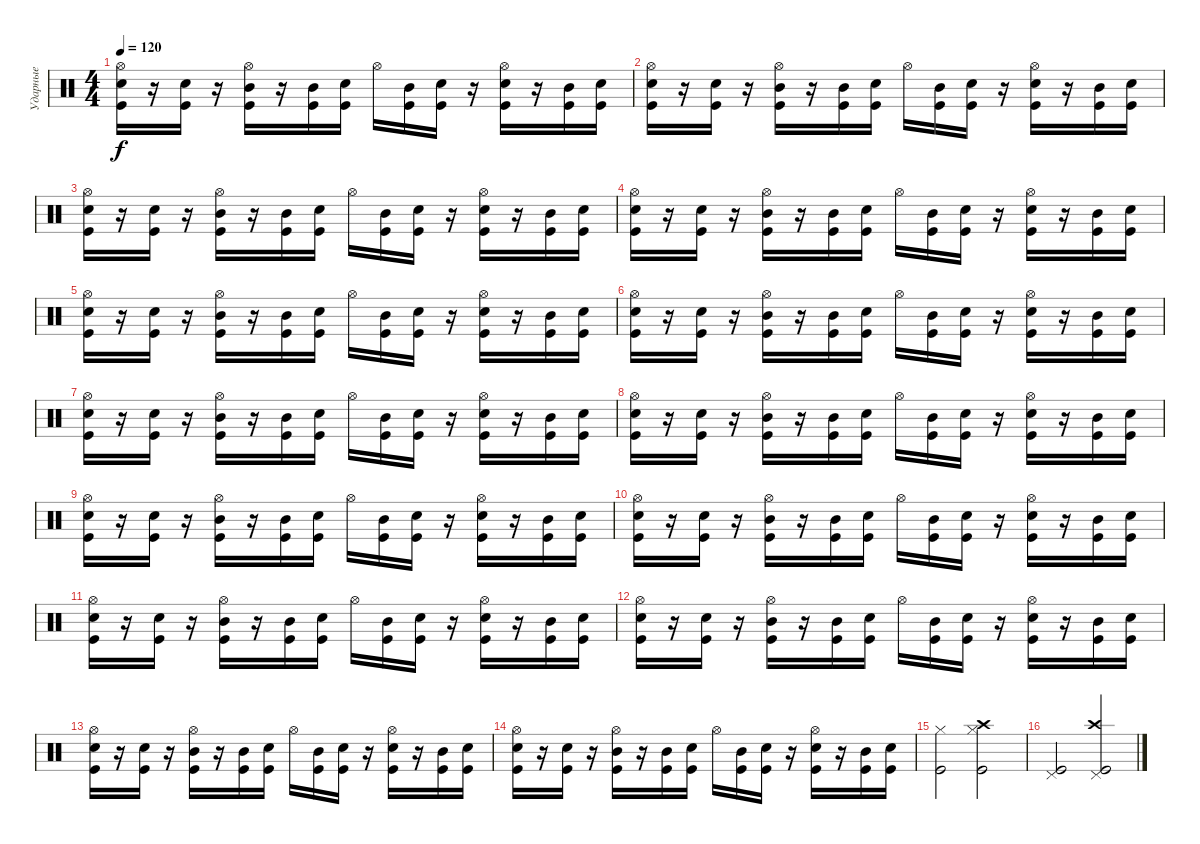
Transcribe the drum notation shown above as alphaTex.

\track ("Ударные" "Ударные") {instrument percussion}
\staff {score}
\articulation defaults
\ts (4 4)
\tempo 120
\clef neutral
\ks c
("Hi-Hat (open)" "Snare (hit) 2" "Kick (hit)").16{dy f} r.16 ("Snare (hit) 2" "Kick (hit)").16 r.16 ("Hi-Hat (open)" "Mid Tom (hit)" "Kick (hit)").16 r.16 ("Mid Tom (hit)" "Kick (hit)").16 ("Snare (hit) 2" "Kick (hit)").16 "Hi-Hat (open)".16 ("Mid Tom (hit)" "Kick (hit)").16 ("Snare (hit) 2" "Kick (hit)").16 r.16 ("Hi-Hat (open)" "Snare (hit) 2" "Kick (hit)").16 r.16 ("Mid Tom (hit)" "Kick (hit)").16 ("Snare (hit) 2" "Kick (hit)").16 |
("Hi-Hat (open)" "Snare (hit) 2" "Kick (hit)").16 r.16 ("Snare (hit) 2" "Kick (hit)").16 r.16 ("Hi-Hat (open)" "Mid Tom (hit)" "Kick (hit)").16 r.16 ("Mid Tom (hit)" "Kick (hit)").16 ("Snare (hit) 2" "Kick (hit)").16 "Hi-Hat (open)".16 ("Mid Tom (hit)" "Kick (hit)").16 ("Snare (hit) 2" "Kick (hit)").16 r.16 ("Hi-Hat (open)" "Snare (hit) 2" "Kick (hit)").16 r.16 ("Mid Tom (hit)" "Kick (hit)").16 ("Snare (hit) 2" "Kick (hit)").16 |
("Hi-Hat (open)" "Snare (hit) 2" "Kick (hit)").16 r.16 ("Snare (hit) 2" "Kick (hit)").16 r.16 ("Hi-Hat (open)" "Mid Tom (hit)" "Kick (hit)").16 r.16 ("Mid Tom (hit)" "Kick (hit)").16 ("Snare (hit) 2" "Kick (hit)").16 "Hi-Hat (open)".16 ("Mid Tom (hit)" "Kick (hit)").16 ("Snare (hit) 2" "Kick (hit)").16 r.16 ("Hi-Hat (open)" "Snare (hit) 2" "Kick (hit)").16 r.16 ("Mid Tom (hit)" "Kick (hit)").16 ("Snare (hit) 2" "Kick (hit)").16 |
("Hi-Hat (open)" "Snare (hit) 2" "Kick (hit)").16 r.16 ("Snare (hit) 2" "Kick (hit)").16 r.16 ("Hi-Hat (open)" "Mid Tom (hit)" "Kick (hit)").16 r.16 ("Mid Tom (hit)" "Kick (hit)").16 ("Snare (hit) 2" "Kick (hit)").16 "Hi-Hat (open)".16 ("Mid Tom (hit)" "Kick (hit)").16 ("Snare (hit) 2" "Kick (hit)").16 r.16 ("Hi-Hat (open)" "Snare (hit) 2" "Kick (hit)").16 r.16 ("Mid Tom (hit)" "Kick (hit)").16 ("Snare (hit) 2" "Kick (hit)").16 |
("Hi-Hat (open)" "Snare (hit) 2" "Kick (hit)").16 r.16 ("Snare (hit) 2" "Kick (hit)").16 r.16 ("Hi-Hat (open)" "Mid Tom (hit)" "Kick (hit)").16 r.16 ("Mid Tom (hit)" "Kick (hit)").16 ("Snare (hit) 2" "Kick (hit)").16 "Hi-Hat (open)".16 ("Mid Tom (hit)" "Kick (hit)").16 ("Snare (hit) 2" "Kick (hit)").16 r.16 ("Hi-Hat (open)" "Snare (hit) 2" "Kick (hit)").16 r.16 ("Mid Tom (hit)" "Kick (hit)").16 ("Snare (hit) 2" "Kick (hit)").16 |
("Hi-Hat (open)" "Snare (hit) 2" "Kick (hit)").16 r.16 ("Snare (hit) 2" "Kick (hit)").16 r.16 ("Hi-Hat (open)" "Mid Tom (hit)" "Kick (hit)").16 r.16 ("Mid Tom (hit)" "Kick (hit)").16 ("Snare (hit) 2" "Kick (hit)").16 "Hi-Hat (open)".16 ("Mid Tom (hit)" "Kick (hit)").16 ("Snare (hit) 2" "Kick (hit)").16 r.16 ("Hi-Hat (open)" "Snare (hit) 2" "Kick (hit)").16 r.16 ("Mid Tom (hit)" "Kick (hit)").16 ("Snare (hit) 2" "Kick (hit)").16 |
("Hi-Hat (open)" "Snare (hit) 2" "Kick (hit)").16 r.16 ("Snare (hit) 2" "Kick (hit)").16 r.16 ("Hi-Hat (open)" "Mid Tom (hit)" "Kick (hit)").16 r.16 ("Mid Tom (hit)" "Kick (hit)").16 ("Snare (hit) 2" "Kick (hit)").16 "Hi-Hat (open)".16 ("Mid Tom (hit)" "Kick (hit)").16 ("Snare (hit) 2" "Kick (hit)").16 r.16 ("Hi-Hat (open)" "Snare (hit) 2" "Kick (hit)").16 r.16 ("Mid Tom (hit)" "Kick (hit)").16 ("Snare (hit) 2" "Kick (hit)").16 |
("Hi-Hat (open)" "Snare (hit) 2" "Kick (hit)").16 r.16 ("Snare (hit) 2" "Kick (hit)").16 r.16 ("Hi-Hat (open)" "Mid Tom (hit)" "Kick (hit)").16 r.16 ("Mid Tom (hit)" "Kick (hit)").16 ("Snare (hit) 2" "Kick (hit)").16 "Hi-Hat (open)".16 ("Mid Tom (hit)" "Kick (hit)").16 ("Snare (hit) 2" "Kick (hit)").16 r.16 ("Hi-Hat (open)" "Snare (hit) 2" "Kick (hit)").16 r.16 ("Mid Tom (hit)" "Kick (hit)").16 ("Snare (hit) 2" "Kick (hit)").16 |
("Hi-Hat (open)" "Snare (hit) 2" "Kick (hit)").16 r.16 ("Snare (hit) 2" "Kick (hit)").16 r.16 ("Hi-Hat (open)" "Mid Tom (hit)" "Kick (hit)").16 r.16 ("Mid Tom (hit)" "Kick (hit)").16 ("Snare (hit) 2" "Kick (hit)").16 "Hi-Hat (open)".16 ("Mid Tom (hit)" "Kick (hit)").16 ("Snare (hit) 2" "Kick (hit)").16 r.16 ("Hi-Hat (open)" "Snare (hit) 2" "Kick (hit)").16 r.16 ("Mid Tom (hit)" "Kick (hit)").16 ("Snare (hit) 2" "Kick (hit)").16 |
("Hi-Hat (open)" "Snare (hit) 2" "Kick (hit)").16 r.16 ("Snare (hit) 2" "Kick (hit)").16 r.16 ("Hi-Hat (open)" "Mid Tom (hit)" "Kick (hit)").16 r.16 ("Mid Tom (hit)" "Kick (hit)").16 ("Snare (hit) 2" "Kick (hit)").16 "Hi-Hat (open)".16 ("Mid Tom (hit)" "Kick (hit)").16 ("Snare (hit) 2" "Kick (hit)").16 r.16 ("Hi-Hat (open)" "Snare (hit) 2" "Kick (hit)").16 r.16 ("Mid Tom (hit)" "Kick (hit)").16 ("Snare (hit) 2" "Kick (hit)").16 |
("Hi-Hat (open)" "Snare (hit) 2" "Kick (hit)").16 r.16 ("Snare (hit) 2" "Kick (hit)").16 r.16 ("Hi-Hat (open)" "Mid Tom (hit)" "Kick (hit)").16 r.16 ("Mid Tom (hit)" "Kick (hit)").16 ("Snare (hit) 2" "Kick (hit)").16 "Hi-Hat (open)".16 ("Mid Tom (hit)" "Kick (hit)").16 ("Snare (hit) 2" "Kick (hit)").16 r.16 ("Hi-Hat (open)" "Snare (hit) 2" "Kick (hit)").16 r.16 ("Mid Tom (hit)" "Kick (hit)").16 ("Snare (hit) 2" "Kick (hit)").16 |
("Hi-Hat (open)" "Snare (hit) 2" "Kick (hit)").16 r.16 ("Snare (hit) 2" "Kick (hit)").16 r.16 ("Hi-Hat (open)" "Mid Tom (hit)" "Kick (hit)").16 r.16 ("Mid Tom (hit)" "Kick (hit)").16 ("Snare (hit) 2" "Kick (hit)").16 "Hi-Hat (open)".16 ("Mid Tom (hit)" "Kick (hit)").16 ("Snare (hit) 2" "Kick (hit)").16 r.16 ("Hi-Hat (open)" "Snare (hit) 2" "Kick (hit)").16 r.16 ("Mid Tom (hit)" "Kick (hit)").16 ("Snare (hit) 2" "Kick (hit)").16 |
("Hi-Hat (open)" "Snare (hit) 2" "Kick (hit)").16 r.16 ("Snare (hit) 2" "Kick (hit)").16 r.16 ("Hi-Hat (open)" "Mid Tom (hit)" "Kick (hit)").16 r.16 ("Mid Tom (hit)" "Kick (hit)").16 ("Snare (hit) 2" "Kick (hit)").16 "Hi-Hat (open)".16 ("Mid Tom (hit)" "Kick (hit)").16 ("Snare (hit) 2" "Kick (hit)").16 r.16 ("Hi-Hat (open)" "Snare (hit) 2" "Kick (hit)").16 r.16 ("Mid Tom (hit)" "Kick (hit)").16 ("Snare (hit) 2" "Kick (hit)").16 |
("Hi-Hat (open)" "Snare (hit) 2" "Kick (hit)").16 r.16 ("Snare (hit) 2" "Kick (hit)").16 r.16 ("Hi-Hat (open)" "Mid Tom (hit)" "Kick (hit)").16 r.16 ("Mid Tom (hit)" "Kick (hit)").16 ("Snare (hit) 2" "Kick (hit)").16 "Hi-Hat (open)".16 ("Mid Tom (hit)" "Kick (hit)").16 ("Snare (hit) 2" "Kick (hit)").16 r.16 ("Hi-Hat (open)" "Snare (hit) 2" "Kick (hit)").16 r.16 ("Mid Tom (hit)" "Kick (hit)").16 ("Snare (hit) 2" "Kick (hit)").16 |
("Hi-Hat (closed)" "Kick (hit)").2 ("Crash high (hit)" "Hi-Hat (closed)" "Kick (hit)").2 |
("Pedal Hi-Hat (hit)" "Kick (hit)").2 ("Crash high (hit)" "Pedal Hi-Hat (hit)" "Kick (hit)").2
